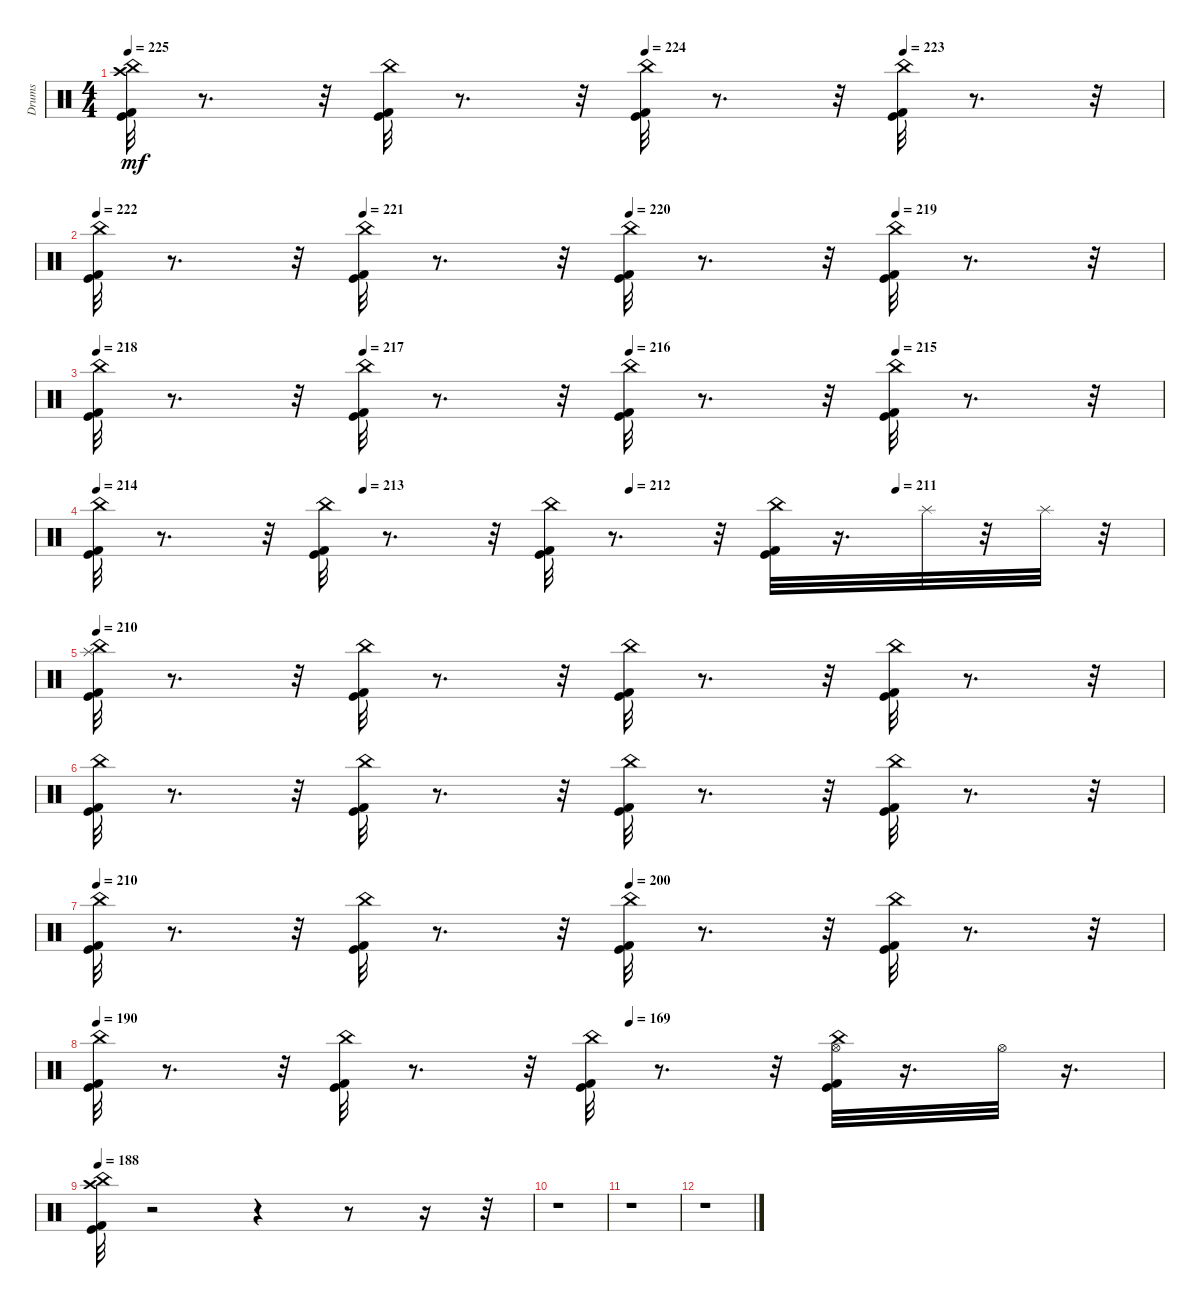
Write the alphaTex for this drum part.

\track ("Drums" "Drums") {instrument percussion}
\staff {score}
\articulation defaults
\ts (4 4)
\tempo 225
\tempo (224 0.5)
\tempo (223 0.75)
\clef neutral
\ks c
("Kick (hit) 2" "Kick (hit)" "China (hit)" "Crash high (hit)").32{dy mf} r.8{d} r.32 ("Kick (hit) 2" "Kick (hit)" "China (hit)").32 r.8{d} r.32 ("Kick (hit) 2" "Kick (hit)" "China (hit)").32 r.8{d} r.32 ("Kick (hit) 2" "Kick (hit)" "China (hit)").32 r.8{d} r.32 |
\tempo 222
\tempo (221 0.25)
\tempo (220 0.5)
\tempo (219 0.75)
("Kick (hit) 2" "Kick (hit)" "China (hit)").32 r.8{d} r.32 ("Kick (hit) 2" "Kick (hit)" "China (hit)").32 r.8{d} r.32 ("Kick (hit) 2" "Kick (hit)" "China (hit)").32 r.8{d} r.32 ("Kick (hit) 2" "Kick (hit)" "China (hit)").32 r.8{d} r.32 |
\tempo 218
\tempo (217 0.25)
\tempo (216 0.5)
\tempo (215 0.75)
("Kick (hit) 2" "Kick (hit)" "China (hit)").32 r.8{d} r.32 ("Kick (hit) 2" "Kick (hit)" "China (hit)").32 r.8{d} r.32 ("Kick (hit) 2" "Kick (hit)" "China (hit)").32 r.8{d} r.32 ("Kick (hit) 2" "Kick (hit)" "China (hit)").32 r.8{d} r.32 |
\tempo 214
\tempo (213 0.25)
\tempo (212 0.5)
\tempo (211 0.75)
("Kick (hit) 2" "Kick (hit)" "China (hit)").32 r.8{d} r.32 ("Kick (hit) 2" "Kick (hit)" "China (hit)").32 r.8{d} r.32 ("Kick (hit) 2" "Kick (hit)" "China (hit)").32 r.8{d} r.32 ("Kick (hit) 2" "Kick (hit)" "China (hit)").32 r.16{d} "Splash (hit)".32 r.32 "Splash (hit)".32 r.32 |
\tempo 210
("Splash (hit)" "Kick (hit) 2" "Kick (hit)" "China (hit)").32 r.8{d} r.32 ("Kick (hit) 2" "Kick (hit)" "China (hit)").32 r.8{d} r.32 ("Kick (hit) 2" "Kick (hit)" "China (hit)").32 r.8{d} r.32 ("Kick (hit) 2" "Kick (hit)" "China (hit)").32 r.8{d} r.32 |
("Kick (hit) 2" "Kick (hit)" "China (hit)").32 r.8{d} r.32 ("Kick (hit) 2" "Kick (hit)" "China (hit)").32 r.8{d} r.32 ("Kick (hit) 2" "Kick (hit)" "China (hit)").32 r.8{d} r.32 ("Kick (hit) 2" "Kick (hit)" "China (hit)").32 r.8{d} r.32 |
\tempo 210
\tempo (200 0.5)
("Kick (hit) 2" "Kick (hit)" "China (hit)").32 r.8{d} r.32 ("Kick (hit) 2" "Kick (hit)" "China (hit)").32 r.8{d} r.32 ("Kick (hit) 2" "Kick (hit)" "China (hit)").32 r.8{d} r.32 ("Kick (hit) 2" "Kick (hit)" "China (hit)").32 r.8{d} r.32 |
\tempo 190
\tempo (169 0.5)
("Kick (hit) 2" "Kick (hit)" "China (hit)").32 r.8{d} r.32 ("Kick (hit) 2" "Kick (hit)" "China (hit)").32 r.8{d} r.32 ("Kick (hit) 2" "Kick (hit)" "China (hit)").32 r.8{d} r.32 ("Kick (hit) 2" "Kick (hit)" "China (hit)" "Hi-Hat (open)").32 r.16{d} "Hi-Hat (open)".32 r.16{d} |
\tempo 188
("Kick (hit) 2" "Kick (hit)" "China (hit)" "Crash high (hit)").32 r.2 r.4 r.8 r.16 r.32 |
r.1 |
r.1 |
r.1
